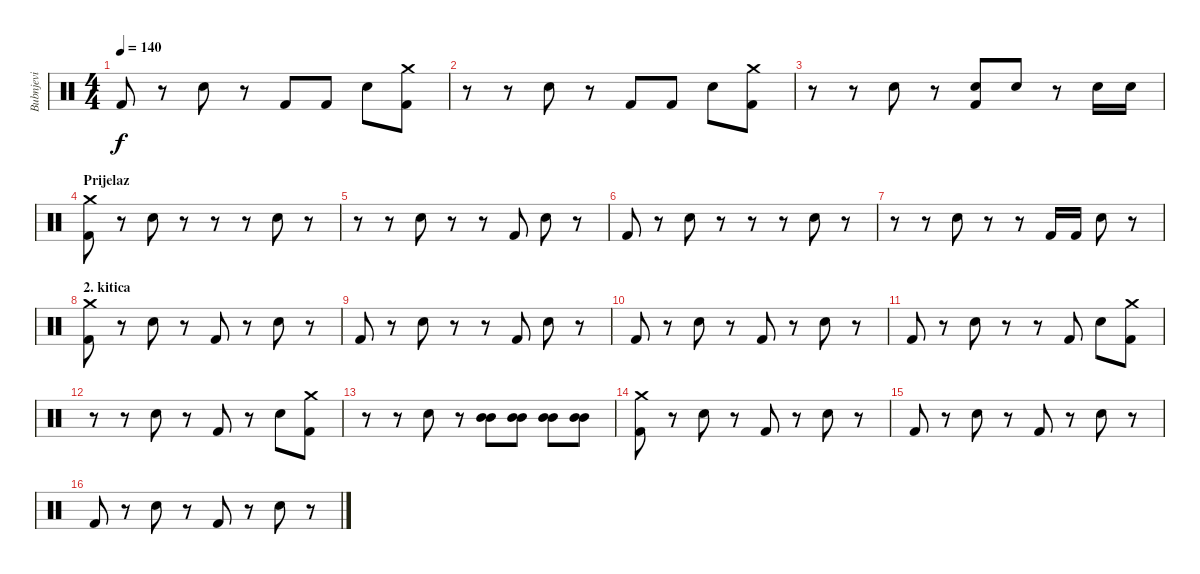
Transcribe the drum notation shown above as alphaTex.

\track ("Bubnjevi" "Bubnjevi") {instrument percussion}
\staff {score}
\articulation defaults
\ts (4 4)
\tempo 140
\clef neutral
\ks c "Kick (hit) 2".8{dy f}
r.8 "Snare (hit) 2".8 r.8 "Kick (hit) 2".8 "Kick (hit) 2".8 "Snare (hit) 2".8 ("Crash medium (hit)" "Kick (hit) 2").8 |
r.8 r.8 "Snare (hit) 2".8 r.8 "Kick (hit) 2".8 "Kick (hit) 2".8 "Snare (hit) 2".8 ("Crash medium (hit)" "Kick (hit) 2").8 |
r.8 r.8 "Snare (hit) 2".8 r.8 ("Snare (hit) 2" "Kick (hit) 2").8 "Snare (hit) 2".8 r.8 "Snare (hit) 2".16 "Snare (hit) 2".16 |
\section ("" "Prijelaz")
("Crash medium (hit)" "Kick (hit) 2").8 r.8 "Snare (hit) 2".8 r.8 r.8 r.8 "Snare (hit) 2".8 r.8 |
r.8 r.8 "Snare (hit) 2".8 r.8 r.8 "Kick (hit) 2".8 "Snare (hit) 2".8 r.8 |
"Kick (hit) 2".8 r.8 "Snare (hit) 2".8 r.8 r.8 r.8 "Snare (hit) 2".8 r.8 |
r.8 r.8 "Snare (hit) 2".8 r.8 r.8 "Kick (hit) 2".16 "Kick (hit) 2".16 "Snare (hit) 2".8 r.8 |
\section ("" "2. kitica")
("Crash medium (hit)" "Kick (hit) 2").8 r.8 "Snare (hit) 2".8 r.8 "Kick (hit) 2".8 r.8 "Snare (hit) 2".8 r.8 |
"Kick (hit) 2".8 r.8 "Snare (hit) 2".8 r.8 r.8 "Kick (hit) 2".8 "Snare (hit) 2".8 r.8 |
"Kick (hit) 2".8 r.8 "Snare (hit) 2".8 r.8 "Kick (hit) 2".8 r.8 "Snare (hit) 2".8 r.8 |
"Kick (hit) 2".8 r.8 "Snare (hit) 2".8 r.8 r.8 "Kick (hit) 2".8 "Snare (hit) 2".8 ("Crash medium (hit)" "Kick (hit) 2").8 |
r.8 r.8 "Snare (hit) 2".8 r.8 "Kick (hit) 2".8 r.8 "Snare (hit) 2".8 ("Crash medium (hit)" "Kick (hit) 2").8 |
r.8 r.8 "Snare (hit) 2".8 r.8 ("Mid Tom (hit)" "Mid Tom (hit)").8 ("Mid Tom (hit)" "Mid Tom (hit)").8 ("Mid Tom (hit)" "Mid Tom (hit)").8 ("Mid Tom (hit)" "Mid Tom (hit)").8 |
("Crash medium (hit)" "Kick (hit) 2").8 r.8 "Snare (hit) 2".8 r.8 "Kick (hit) 2".8 r.8 "Snare (hit) 2".8 r.8 |
"Kick (hit) 2".8 r.8 "Snare (hit) 2".8 r.8 "Kick (hit) 2".8 r.8 "Snare (hit) 2".8 r.8 |
"Kick (hit) 2".8 r.8 "Snare (hit) 2".8 r.8 "Kick (hit) 2".8 r.8 "Snare (hit) 2".8 r.8
